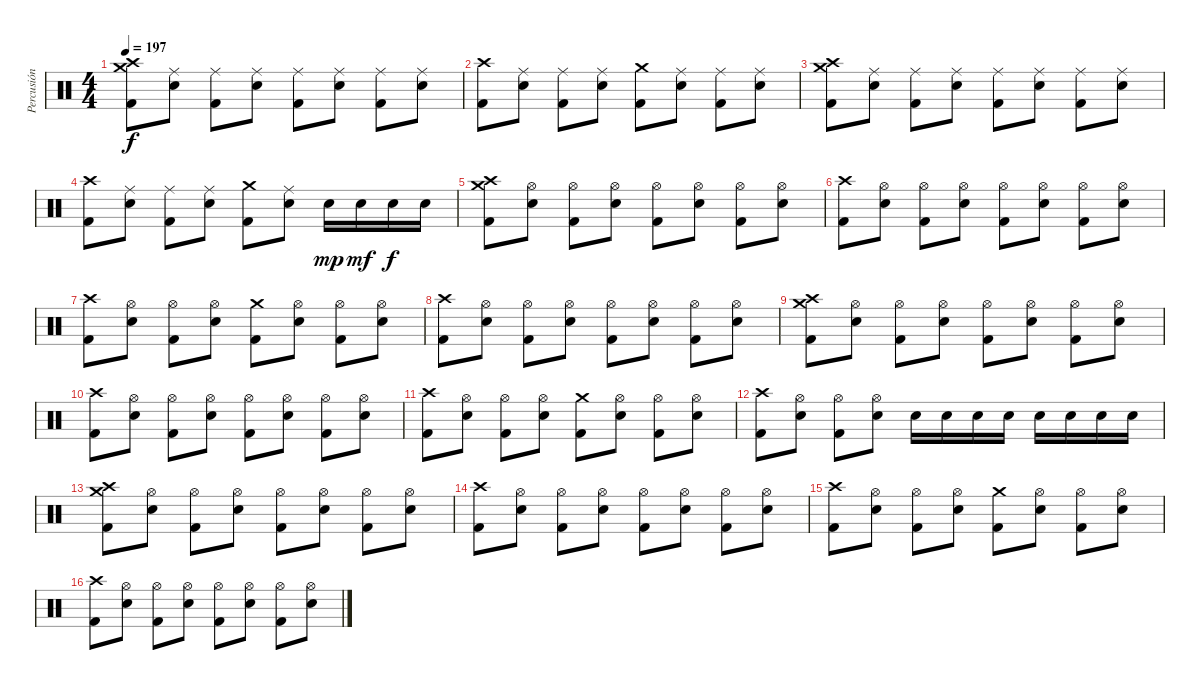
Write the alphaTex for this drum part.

\track ("Percusión" "Percusión") {instrument percussion}
\staff {score}
\articulation defaults
\ts (4 4)
\tempo 197
\clef neutral
\ks c
("Crash high (hit)" "Crash medium (hit)" "Kick (hit) 2").8{dy f} ("Ride (middle)" "Electric Snare (hit)").8 ("Ride (middle)" "Kick (hit) 2").8 ("Ride (middle)" "Electric Snare (hit)").8 ("Ride (middle)" "Kick (hit) 2").8 ("Ride (middle)" "Electric Snare (hit)").8 ("Ride (middle)" "Kick (hit) 2").8 ("Ride (middle)" "Electric Snare (hit)").8 |
("Crash high (hit)" "Kick (hit) 2").8 ("Ride (middle)" "Electric Snare (hit)").8 ("Ride (middle)" "Kick (hit) 2").8 ("Ride (middle)" "Electric Snare (hit)").8 ("Crash medium (hit)" "Kick (hit) 2").8 ("Ride (middle)" "Electric Snare (hit)").8 ("Ride (middle)" "Kick (hit) 2").8 ("Ride (middle)" "Electric Snare (hit)").8 |
("Crash high (hit)" "Crash medium (hit)" "Kick (hit) 2").8 ("Ride (middle)" "Electric Snare (hit)").8 ("Ride (middle)" "Kick (hit) 2").8 ("Ride (middle)" "Electric Snare (hit)").8 ("Ride (middle)" "Kick (hit) 2").8 ("Ride (middle)" "Electric Snare (hit)").8 ("Ride (middle)" "Kick (hit) 2").8 ("Ride (middle)" "Electric Snare (hit)").8 |
("Crash high (hit)" "Kick (hit) 2").8 ("Ride (middle)" "Electric Snare (hit)").8 ("Ride (middle)" "Kick (hit) 2").8 ("Ride (middle)" "Electric Snare (hit)").8 ("Crash medium (hit)" "Kick (hit) 2").8 ("Ride (middle)" "Electric Snare (hit)").8 "Electric Snare (hit)".16{dy mp} "Electric Snare (hit)".16{dy mf} "Electric Snare (hit)".16{dy f} "Electric Snare (hit)".16 |
("Crash high (hit)" "Crash medium (hit)" "Kick (hit) 2").8 ("Hi-Hat (open)" "Electric Snare (hit)").8 ("Hi-Hat (open)" "Kick (hit) 2").8 ("Hi-Hat (open)" "Electric Snare (hit)").8 ("Hi-Hat (open)" "Kick (hit) 2").8 ("Hi-Hat (open)" "Electric Snare (hit)").8 ("Hi-Hat (open)" "Kick (hit) 2").8 ("Hi-Hat (open)" "Electric Snare (hit)").8 |
("Crash high (hit)" "Kick (hit) 2").8 ("Hi-Hat (open)" "Electric Snare (hit)").8 ("Hi-Hat (open)" "Kick (hit) 2").8 ("Hi-Hat (open)" "Electric Snare (hit)").8 ("Hi-Hat (open)" "Kick (hit) 2").8 ("Hi-Hat (open)" "Electric Snare (hit)").8 ("Hi-Hat (open)" "Kick (hit) 2").8 ("Hi-Hat (open)" "Electric Snare (hit)").8 |
("Crash high (hit)" "Kick (hit) 2").8 ("Hi-Hat (open)" "Electric Snare (hit)").8 ("Hi-Hat (open)" "Kick (hit) 2").8 ("Hi-Hat (open)" "Electric Snare (hit)").8 ("Crash medium (hit)" "Kick (hit) 2").8 ("Hi-Hat (open)" "Electric Snare (hit)").8 ("Hi-Hat (open)" "Kick (hit) 2").8 ("Hi-Hat (open)" "Electric Snare (hit)").8 |
("Crash high (hit)" "Kick (hit) 2").8 ("Hi-Hat (open)" "Electric Snare (hit)").8 ("Hi-Hat (open)" "Kick (hit) 2").8 ("Hi-Hat (open)" "Electric Snare (hit)").8 ("Hi-Hat (open)" "Kick (hit) 2").8 ("Hi-Hat (open)" "Electric Snare (hit)").8 ("Hi-Hat (open)" "Kick (hit) 2").8 ("Hi-Hat (open)" "Electric Snare (hit)").8 |
("Crash high (hit)" "Crash medium (hit)" "Kick (hit) 2").8 ("Hi-Hat (open)" "Electric Snare (hit)").8 ("Hi-Hat (open)" "Kick (hit) 2").8 ("Hi-Hat (open)" "Electric Snare (hit)").8 ("Hi-Hat (open)" "Kick (hit) 2").8 ("Hi-Hat (open)" "Electric Snare (hit)").8 ("Hi-Hat (open)" "Kick (hit) 2").8 ("Hi-Hat (open)" "Electric Snare (hit)").8 |
("Crash high (hit)" "Kick (hit) 2").8 ("Hi-Hat (open)" "Electric Snare (hit)").8 ("Hi-Hat (open)" "Kick (hit) 2").8 ("Hi-Hat (open)" "Electric Snare (hit)").8 ("Hi-Hat (open)" "Kick (hit) 2").8 ("Hi-Hat (open)" "Electric Snare (hit)").8 ("Hi-Hat (open)" "Kick (hit) 2").8 ("Hi-Hat (open)" "Electric Snare (hit)").8 |
("Crash high (hit)" "Kick (hit) 2").8 ("Hi-Hat (open)" "Electric Snare (hit)").8 ("Hi-Hat (open)" "Kick (hit) 2").8 ("Hi-Hat (open)" "Electric Snare (hit)").8 ("Crash medium (hit)" "Kick (hit) 2").8 ("Hi-Hat (open)" "Electric Snare (hit)").8 ("Hi-Hat (open)" "Kick (hit) 2").8 ("Hi-Hat (open)" "Electric Snare (hit)").8 |
("Crash high (hit)" "Kick (hit) 2").8 ("Hi-Hat (open)" "Electric Snare (hit)").8 ("Hi-Hat (open)" "Kick (hit) 2").8 ("Hi-Hat (open)" "Electric Snare (hit)").8 "Electric Snare (hit)".16 "Electric Snare (hit)".16 "Electric Snare (hit)".16 "Electric Snare (hit)".16 "Electric Snare (hit)".16 "Electric Snare (hit)".16 "Electric Snare (hit)".16 "Electric Snare (hit)".16 |
("Crash high (hit)" "Crash medium (hit)" "Kick (hit) 2").8 ("Hi-Hat (open)" "Electric Snare (hit)").8 ("Hi-Hat (open)" "Kick (hit) 2").8 ("Hi-Hat (open)" "Electric Snare (hit)").8 ("Hi-Hat (open)" "Kick (hit) 2").8 ("Hi-Hat (open)" "Electric Snare (hit)").8 ("Hi-Hat (open)" "Kick (hit) 2").8 ("Hi-Hat (open)" "Electric Snare (hit)").8 |
("Crash high (hit)" "Kick (hit) 2").8 ("Hi-Hat (open)" "Electric Snare (hit)").8 ("Hi-Hat (open)" "Kick (hit) 2").8 ("Hi-Hat (open)" "Electric Snare (hit)").8 ("Hi-Hat (open)" "Kick (hit) 2").8 ("Hi-Hat (open)" "Electric Snare (hit)").8 ("Hi-Hat (open)" "Kick (hit) 2").8 ("Hi-Hat (open)" "Electric Snare (hit)").8 |
("Crash high (hit)" "Kick (hit) 2").8 ("Hi-Hat (open)" "Electric Snare (hit)").8 ("Hi-Hat (open)" "Kick (hit) 2").8 ("Hi-Hat (open)" "Electric Snare (hit)").8 ("Crash medium (hit)" "Kick (hit) 2").8 ("Hi-Hat (open)" "Electric Snare (hit)").8 ("Hi-Hat (open)" "Kick (hit) 2").8 ("Hi-Hat (open)" "Electric Snare (hit)").8 |
("Crash high (hit)" "Kick (hit) 2").8 ("Hi-Hat (open)" "Electric Snare (hit)").8 ("Hi-Hat (open)" "Kick (hit) 2").8 ("Hi-Hat (open)" "Electric Snare (hit)").8 ("Hi-Hat (open)" "Kick (hit) 2").8 ("Hi-Hat (open)" "Electric Snare (hit)").8 ("Hi-Hat (open)" "Kick (hit) 2").8 ("Hi-Hat (open)" "Electric Snare (hit)").8
